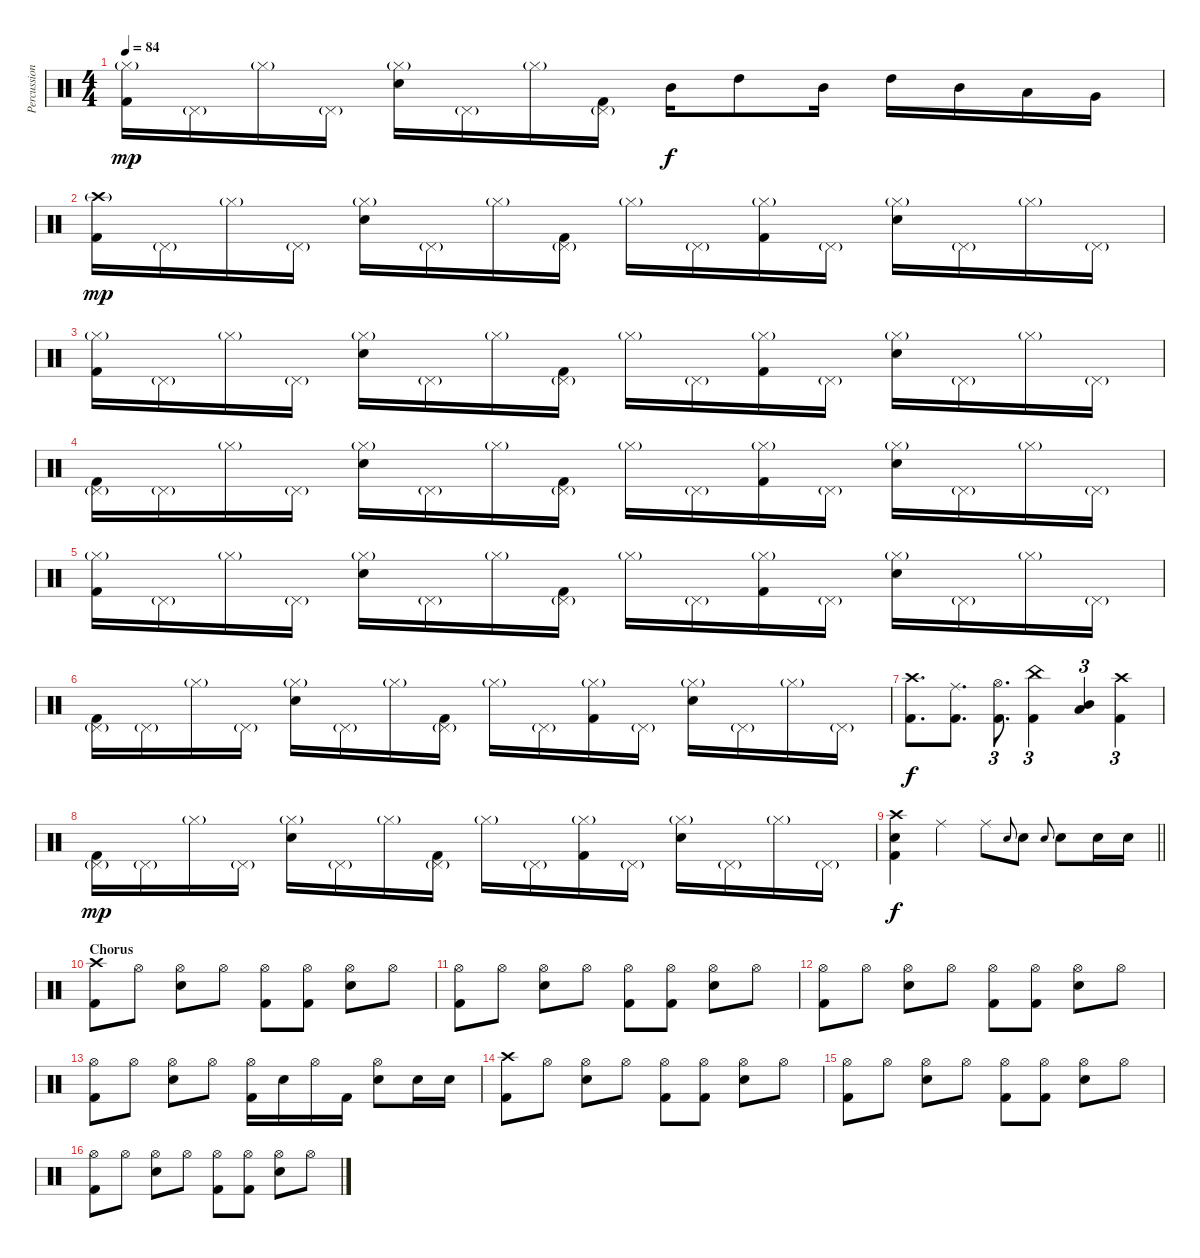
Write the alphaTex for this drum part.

\track ("Percussion" "Percussion") {instrument percussion}
\staff {score}
\articulation defaults
\ts (4 4)
\tempo 84
\clef neutral
\ks c
("Hi-Hat (closed)"{g} "Kick (hit) 2").16{dy mp} "Pedal Hi-Hat (hit)"{g}.16 "Hi-Hat (closed)"{g}.16 "Pedal Hi-Hat (hit)"{g}.16 ("Hi-Hat (closed)"{g} "Electric Snare (hit)").16 "Pedal Hi-Hat (hit)"{g}.16 "Hi-Hat (closed)"{g}.16 ("Pedal Hi-Hat (hit)"{g} "Kick (hit) 2").16 "Mid Tom (hit)".16{dy f} "High Tom (hit)".8 "Mid Tom (hit)".16 "High Tom (hit)".16 "Mid Tom (hit)".16 "Low Tom (hit)".16 "Very Low Tom (hit)".16 |
("Crash high (hit)"{g} "Kick (hit) 2").16{dy mp} "Pedal Hi-Hat (hit)"{g}.16 "Hi-Hat (closed)"{g}.16 "Pedal Hi-Hat (hit)"{g}.16 ("Hi-Hat (closed)"{g} "Electric Snare (hit)").16 "Pedal Hi-Hat (hit)"{g}.16 "Hi-Hat (closed)"{g}.16 ("Pedal Hi-Hat (hit)"{g} "Kick (hit) 2").16 "Hi-Hat (closed)"{g}.16 "Pedal Hi-Hat (hit)"{g}.16 ("Hi-Hat (closed)"{g} "Kick (hit) 2").16 "Pedal Hi-Hat (hit)"{g}.16 ("Hi-Hat (closed)"{g} "Electric Snare (hit)").16 "Pedal Hi-Hat (hit)"{g}.16 "Hi-Hat (closed)"{g}.16 "Pedal Hi-Hat (hit)"{g}.16 |
("Hi-Hat (closed)"{g} "Kick (hit) 2").16 "Pedal Hi-Hat (hit)"{g}.16 "Hi-Hat (closed)"{g}.16 "Pedal Hi-Hat (hit)"{g}.16 ("Hi-Hat (closed)"{g} "Electric Snare (hit)").16 "Pedal Hi-Hat (hit)"{g}.16 "Hi-Hat (closed)"{g}.16 ("Pedal Hi-Hat (hit)"{g} "Kick (hit) 2").16 "Hi-Hat (closed)"{g}.16 "Pedal Hi-Hat (hit)"{g}.16 ("Hi-Hat (closed)"{g} "Kick (hit) 2").16 "Pedal Hi-Hat (hit)"{g}.16 ("Hi-Hat (closed)"{g} "Electric Snare (hit)").16 "Pedal Hi-Hat (hit)"{g}.16 "Hi-Hat (closed)"{g}.16 "Pedal Hi-Hat (hit)"{g}.16 |
("Pedal Hi-Hat (hit)"{g} "Kick (hit) 2").16 "Pedal Hi-Hat (hit)"{g}.16 "Hi-Hat (closed)"{g}.16 "Pedal Hi-Hat (hit)"{g}.16 ("Hi-Hat (closed)"{g} "Electric Snare (hit)").16 "Pedal Hi-Hat (hit)"{g}.16 "Hi-Hat (closed)"{g}.16 ("Pedal Hi-Hat (hit)"{g} "Kick (hit) 2").16 "Hi-Hat (closed)"{g}.16 "Pedal Hi-Hat (hit)"{g}.16 ("Hi-Hat (closed)"{g} "Kick (hit) 2").16 "Pedal Hi-Hat (hit)"{g}.16 ("Hi-Hat (closed)"{g} "Electric Snare (hit)").16 "Pedal Hi-Hat (hit)"{g}.16 "Hi-Hat (closed)"{g}.16 "Pedal Hi-Hat (hit)"{g}.16 |
("Hi-Hat (closed)"{g} "Kick (hit) 2").16 "Pedal Hi-Hat (hit)"{g}.16 "Hi-Hat (closed)"{g}.16 "Pedal Hi-Hat (hit)"{g}.16 ("Hi-Hat (closed)"{g} "Electric Snare (hit)").16 "Pedal Hi-Hat (hit)"{g}.16 "Hi-Hat (closed)"{g}.16 ("Pedal Hi-Hat (hit)"{g} "Kick (hit) 2").16 "Hi-Hat (closed)"{g}.16 "Pedal Hi-Hat (hit)"{g}.16 ("Hi-Hat (closed)"{g} "Kick (hit) 2").16 "Pedal Hi-Hat (hit)"{g}.16 ("Hi-Hat (closed)"{g} "Electric Snare (hit)").16 "Pedal Hi-Hat (hit)"{g}.16 "Hi-Hat (closed)"{g}.16 "Pedal Hi-Hat (hit)"{g}.16 |
("Pedal Hi-Hat (hit)"{g} "Kick (hit) 2").16 "Pedal Hi-Hat (hit)"{g}.16 "Hi-Hat (closed)"{g}.16 "Pedal Hi-Hat (hit)"{g}.16 ("Hi-Hat (closed)"{g} "Electric Snare (hit)").16 "Pedal Hi-Hat (hit)"{g}.16 "Hi-Hat (closed)"{g}.16 ("Pedal Hi-Hat (hit)"{g} "Kick (hit) 2").16 "Hi-Hat (closed)"{g}.16 "Pedal Hi-Hat (hit)"{g}.16 ("Hi-Hat (closed)"{g} "Kick (hit) 2").16 "Pedal Hi-Hat (hit)"{g}.16 ("Hi-Hat (closed)"{g} "Electric Snare (hit)").16 "Pedal Hi-Hat (hit)"{g}.16 "Hi-Hat (closed)"{g}.16 "Pedal Hi-Hat (hit)"{g}.16 |
("Crash high (hit)" "Kick (hit) 2").8{d dy f} ("Ride (middle)" "Kick (hit) 2").8{d} ("Hi-Hat (open)" "Kick (hit) 2").8{d tu (3 2)} ("China (hit)" "Kick (hit) 2").4{tu (3 2)} ("Low Tom (hit)" "Mid Tom (hit)").4{tu (3 2)} ("Crash high (hit)" "Kick (hit) 2").4{tu (3 2)} |
("Pedal Hi-Hat (hit)"{g} "Kick (hit) 2").16{dy mp} "Pedal Hi-Hat (hit)"{g}.16 "Hi-Hat (closed)"{g}.16 "Pedal Hi-Hat (hit)"{g}.16 ("Hi-Hat (closed)"{g} "Electric Snare (hit)").16 "Pedal Hi-Hat (hit)"{g}.16 "Hi-Hat (closed)"{g}.16 ("Pedal Hi-Hat (hit)"{g} "Kick (hit) 2").16 "Hi-Hat (closed)"{g}.16 "Pedal Hi-Hat (hit)"{g}.16 ("Hi-Hat (closed)"{g} "Kick (hit) 2").16 "Pedal Hi-Hat (hit)"{g}.16 ("Hi-Hat (closed)"{g} "Electric Snare (hit)").16 "Pedal Hi-Hat (hit)"{g}.16 "Hi-Hat (closed)"{g}.16 "Pedal Hi-Hat (hit)"{g}.16 |
\barLineRight lightlight
("Crash high (hit)" "Electric Snare (hit)" "Kick (hit) 2").4{dy f} "Ride (middle)".4 "Ride (middle)".8 "Snare (hit) 2"{h}.8{gr onbeat} "Snare (hit) 2".8 "Snare (hit) 2"{h}.8{gr onbeat} "Snare (hit) 2".8 "Snare (hit) 2".16 "Snare (hit) 2".16 |
\section ("" "Chorus")
("Crash high (hit)" "Kick (hit) 2").8 "Hi-Hat (open)".8 ("Hi-Hat (open)" "Electric Snare (hit)").8 "Hi-Hat (open)".8 ("Hi-Hat (open)" "Kick (hit) 2").8 ("Hi-Hat (open)" "Kick (hit) 2").8 ("Hi-Hat (open)" "Electric Snare (hit)").8 "Hi-Hat (open)".8 |
("Hi-Hat (open)" "Kick (hit) 2").8 "Hi-Hat (open)".8 ("Hi-Hat (open)" "Electric Snare (hit)").8 "Hi-Hat (open)".8 ("Hi-Hat (open)" "Kick (hit) 2").8 ("Hi-Hat (open)" "Kick (hit) 2").8 ("Hi-Hat (open)" "Electric Snare (hit)").8 "Hi-Hat (open)".8 |
("Hi-Hat (open)" "Kick (hit) 2").8 "Hi-Hat (open)".8 ("Hi-Hat (open)" "Electric Snare (hit)").8 "Hi-Hat (open)".8 ("Hi-Hat (open)" "Kick (hit) 2").8 ("Hi-Hat (open)" "Kick (hit) 2").8 ("Hi-Hat (open)" "Electric Snare (hit)").8 "Hi-Hat (open)".8 |
("Hi-Hat (open)" "Kick (hit) 2").8 "Hi-Hat (open)".8 ("Hi-Hat (open)" "Electric Snare (hit)").8 "Hi-Hat (open)".8 ("Hi-Hat (open)" "Kick (hit) 2").16 "Electric Snare (hit)".16 "Hi-Hat (open)".16 "Kick (hit) 2".16 ("Hi-Hat (open)" "Electric Snare (hit)").8 "Electric Snare (hit)".16 "Electric Snare (hit)".16 |
("Crash high (hit)" "Kick (hit) 2").8 "Hi-Hat (open)".8 ("Hi-Hat (open)" "Electric Snare (hit)").8 "Hi-Hat (open)".8 ("Hi-Hat (open)" "Kick (hit) 2").8 ("Hi-Hat (open)" "Kick (hit) 2").8 ("Hi-Hat (open)" "Electric Snare (hit)").8 "Hi-Hat (open)".8 |
("Hi-Hat (open)" "Kick (hit) 2").8 "Hi-Hat (open)".8 ("Hi-Hat (open)" "Electric Snare (hit)").8 "Hi-Hat (open)".8 ("Hi-Hat (open)" "Kick (hit) 2").8 ("Hi-Hat (open)" "Kick (hit) 2").8 ("Hi-Hat (open)" "Electric Snare (hit)").8 "Hi-Hat (open)".8 |
("Hi-Hat (open)" "Kick (hit) 2").8 "Hi-Hat (open)".8 ("Hi-Hat (open)" "Electric Snare (hit)").8 "Hi-Hat (open)".8 ("Hi-Hat (open)" "Kick (hit) 2").8 ("Hi-Hat (open)" "Kick (hit) 2").8 ("Hi-Hat (open)" "Electric Snare (hit)").8 "Hi-Hat (open)".8
